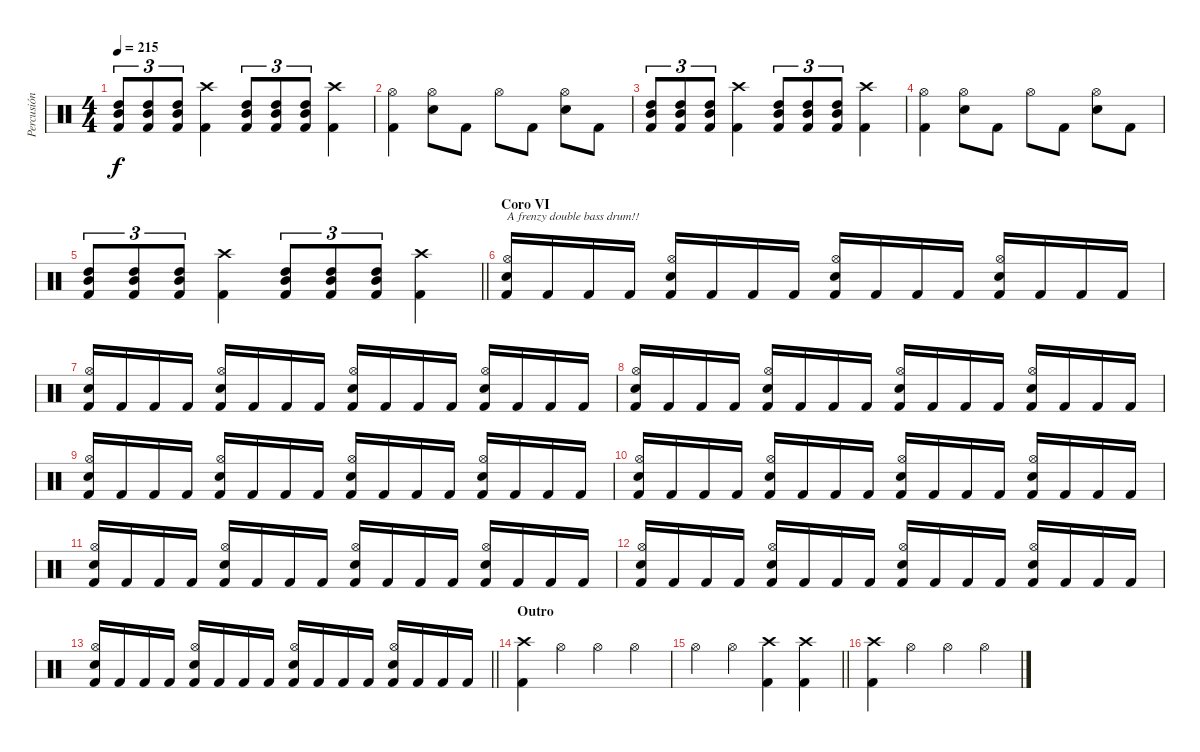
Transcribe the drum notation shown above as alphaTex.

\track ("Percusión" "Percusión") {instrument percussion}
\staff {score}
\articulation defaults
\ts (4 4)
\tempo 215
\clef neutral
\ks c
("High Tom (hit)" "Mid Tom (hit)" "Kick (hit) 2").8{tu (3 2) dy f} ("High Tom (hit)" "Mid Tom (hit)" "Kick (hit) 2").8{tu (3 2)} ("High Tom (hit)" "Mid Tom (hit)" "Kick (hit) 2").8{tu (3 2)} ("Crash high (hit)" "Kick (hit) 2").4 ("High Tom (hit)" "Mid Tom (hit)" "Kick (hit) 2").8{tu (3 2)} ("High Tom (hit)" "Mid Tom (hit)" "Kick (hit) 2").8{tu (3 2)} ("High Tom (hit)" "Mid Tom (hit)" "Kick (hit) 2").8{tu (3 2)} ("Crash high (hit)" "Kick (hit) 2").4 |
("Hi-Hat (open)" "Kick (hit) 2").4 ("Hi-Hat (open)" "Electric Snare (hit)").8 "Kick (hit) 2".8 "Hi-Hat (open)".8 "Kick (hit) 2".8 ("Hi-Hat (open)" "Electric Snare (hit)").8 "Kick (hit) 2".8 |
("High Tom (hit)" "Mid Tom (hit)" "Kick (hit) 2").8{tu (3 2)} ("High Tom (hit)" "Mid Tom (hit)" "Kick (hit) 2").8{tu (3 2)} ("High Tom (hit)" "Mid Tom (hit)" "Kick (hit) 2").8{tu (3 2)} ("Crash high (hit)" "Kick (hit) 2").4 ("High Tom (hit)" "Mid Tom (hit)" "Kick (hit) 2").8{tu (3 2)} ("High Tom (hit)" "Mid Tom (hit)" "Kick (hit) 2").8{tu (3 2)} ("High Tom (hit)" "Mid Tom (hit)" "Kick (hit) 2").8{tu (3 2)} ("Crash high (hit)" "Kick (hit) 2").4 |
("Hi-Hat (open)" "Kick (hit) 2").4 ("Hi-Hat (open)" "Electric Snare (hit)").8 "Kick (hit) 2".8 "Hi-Hat (open)".8 "Kick (hit) 2".8 ("Hi-Hat (open)" "Electric Snare (hit)").8 "Kick (hit) 2".8 |
\barLineRight lightlight
("High Tom (hit)" "Mid Tom (hit)" "Kick (hit) 2").8{tu (3 2)} ("High Tom (hit)" "Mid Tom (hit)" "Kick (hit) 2").8{tu (3 2)} ("High Tom (hit)" "Mid Tom (hit)" "Kick (hit) 2").8{tu (3 2)} ("Crash high (hit)" "Kick (hit) 2").4 ("High Tom (hit)" "Mid Tom (hit)" "Kick (hit) 2").8{tu (3 2)} ("High Tom (hit)" "Mid Tom (hit)" "Kick (hit) 2").8{tu (3 2)} ("High Tom (hit)" "Mid Tom (hit)" "Kick (hit) 2").8{tu (3 2)} ("Crash high (hit)" "Kick (hit) 2").4 |
\section ("" "Coro VI")
("Hi-Hat (open)" "Electric Snare (hit)" "Kick (hit) 2").16{txt "A frenzy double bass drum!! "} "Kick (hit) 2".16 "Kick (hit) 2".16 "Kick (hit) 2".16 ("Hi-Hat (open)" "Electric Snare (hit)" "Kick (hit) 2").16 "Kick (hit) 2".16 "Kick (hit) 2".16 "Kick (hit) 2".16 ("Hi-Hat (open)" "Electric Snare (hit)" "Kick (hit) 2").16 "Kick (hit) 2".16 "Kick (hit) 2".16 "Kick (hit) 2".16 ("Hi-Hat (open)" "Electric Snare (hit)" "Kick (hit) 2").16 "Kick (hit) 2".16 "Kick (hit) 2".16 "Kick (hit) 2".16 |
("Hi-Hat (open)" "Electric Snare (hit)" "Kick (hit) 2").16 "Kick (hit) 2".16 "Kick (hit) 2".16 "Kick (hit) 2".16 ("Hi-Hat (open)" "Electric Snare (hit)" "Kick (hit) 2").16 "Kick (hit) 2".16 "Kick (hit) 2".16 "Kick (hit) 2".16 ("Hi-Hat (open)" "Electric Snare (hit)" "Kick (hit) 2").16 "Kick (hit) 2".16 "Kick (hit) 2".16 "Kick (hit) 2".16 ("Hi-Hat (open)" "Electric Snare (hit)" "Kick (hit) 2").16 "Kick (hit) 2".16 "Kick (hit) 2".16 "Kick (hit) 2".16 |
("Hi-Hat (open)" "Electric Snare (hit)" "Kick (hit) 2").16 "Kick (hit) 2".16 "Kick (hit) 2".16 "Kick (hit) 2".16 ("Hi-Hat (open)" "Electric Snare (hit)" "Kick (hit) 2").16 "Kick (hit) 2".16 "Kick (hit) 2".16 "Kick (hit) 2".16 ("Hi-Hat (open)" "Electric Snare (hit)" "Kick (hit) 2").16 "Kick (hit) 2".16 "Kick (hit) 2".16 "Kick (hit) 2".16 ("Hi-Hat (open)" "Electric Snare (hit)" "Kick (hit) 2").16 "Kick (hit) 2".16 "Kick (hit) 2".16 "Kick (hit) 2".16 |
("Hi-Hat (open)" "Electric Snare (hit)" "Kick (hit) 2").16 "Kick (hit) 2".16 "Kick (hit) 2".16 "Kick (hit) 2".16 ("Hi-Hat (open)" "Electric Snare (hit)" "Kick (hit) 2").16 "Kick (hit) 2".16 "Kick (hit) 2".16 "Kick (hit) 2".16 ("Hi-Hat (open)" "Electric Snare (hit)" "Kick (hit) 2").16 "Kick (hit) 2".16 "Kick (hit) 2".16 "Kick (hit) 2".16 ("Hi-Hat (open)" "Electric Snare (hit)" "Kick (hit) 2").16 "Kick (hit) 2".16 "Kick (hit) 2".16 "Kick (hit) 2".16 |
("Hi-Hat (open)" "Electric Snare (hit)" "Kick (hit) 2").16 "Kick (hit) 2".16 "Kick (hit) 2".16 "Kick (hit) 2".16 ("Hi-Hat (open)" "Electric Snare (hit)" "Kick (hit) 2").16 "Kick (hit) 2".16 "Kick (hit) 2".16 "Kick (hit) 2".16 ("Hi-Hat (open)" "Electric Snare (hit)" "Kick (hit) 2").16 "Kick (hit) 2".16 "Kick (hit) 2".16 "Kick (hit) 2".16 ("Hi-Hat (open)" "Electric Snare (hit)" "Kick (hit) 2").16 "Kick (hit) 2".16 "Kick (hit) 2".16 "Kick (hit) 2".16 |
("Hi-Hat (open)" "Electric Snare (hit)" "Kick (hit) 2").16 "Kick (hit) 2".16 "Kick (hit) 2".16 "Kick (hit) 2".16 ("Hi-Hat (open)" "Electric Snare (hit)" "Kick (hit) 2").16 "Kick (hit) 2".16 "Kick (hit) 2".16 "Kick (hit) 2".16 ("Hi-Hat (open)" "Electric Snare (hit)" "Kick (hit) 2").16 "Kick (hit) 2".16 "Kick (hit) 2".16 "Kick (hit) 2".16 ("Hi-Hat (open)" "Electric Snare (hit)" "Kick (hit) 2").16 "Kick (hit) 2".16 "Kick (hit) 2".16 "Kick (hit) 2".16 |
("Hi-Hat (open)" "Electric Snare (hit)" "Kick (hit) 2").16 "Kick (hit) 2".16 "Kick (hit) 2".16 "Kick (hit) 2".16 ("Hi-Hat (open)" "Electric Snare (hit)" "Kick (hit) 2").16 "Kick (hit) 2".16 "Kick (hit) 2".16 "Kick (hit) 2".16 ("Hi-Hat (open)" "Electric Snare (hit)" "Kick (hit) 2").16 "Kick (hit) 2".16 "Kick (hit) 2".16 "Kick (hit) 2".16 ("Hi-Hat (open)" "Electric Snare (hit)" "Kick (hit) 2").16 "Kick (hit) 2".16 "Kick (hit) 2".16 "Kick (hit) 2".16 |
\barLineRight lightlight
("Hi-Hat (open)" "Electric Snare (hit)" "Kick (hit) 2").16 "Kick (hit) 2".16 "Kick (hit) 2".16 "Kick (hit) 2".16 ("Hi-Hat (open)" "Electric Snare (hit)" "Kick (hit) 2").16 "Kick (hit) 2".16 "Kick (hit) 2".16 "Kick (hit) 2".16 ("Hi-Hat (open)" "Electric Snare (hit)" "Kick (hit) 2").16 "Kick (hit) 2".16 "Kick (hit) 2".16 "Kick (hit) 2".16 ("Hi-Hat (open)" "Electric Snare (hit)" "Kick (hit) 2").16 "Kick (hit) 2".16 "Kick (hit) 2".16 "Kick (hit) 2".16 |
\section ("" "Outro ")
("Crash high (hit)" "Kick (hit) 2").4 "Hi-Hat (open)".4 "Hi-Hat (open)".4 "Hi-Hat (open)".4 |
\barLineRight lightlight "Hi-Hat (open)".4 "Hi-Hat (open)".4
("Crash high (hit)" "Kick (hit) 2").4 ("Crash high (hit)" "Kick (hit) 2").4 |
("Crash high (hit)" "Kick (hit) 2").4 "Hi-Hat (open)".4 "Hi-Hat (open)".4 "Hi-Hat (open)".4
